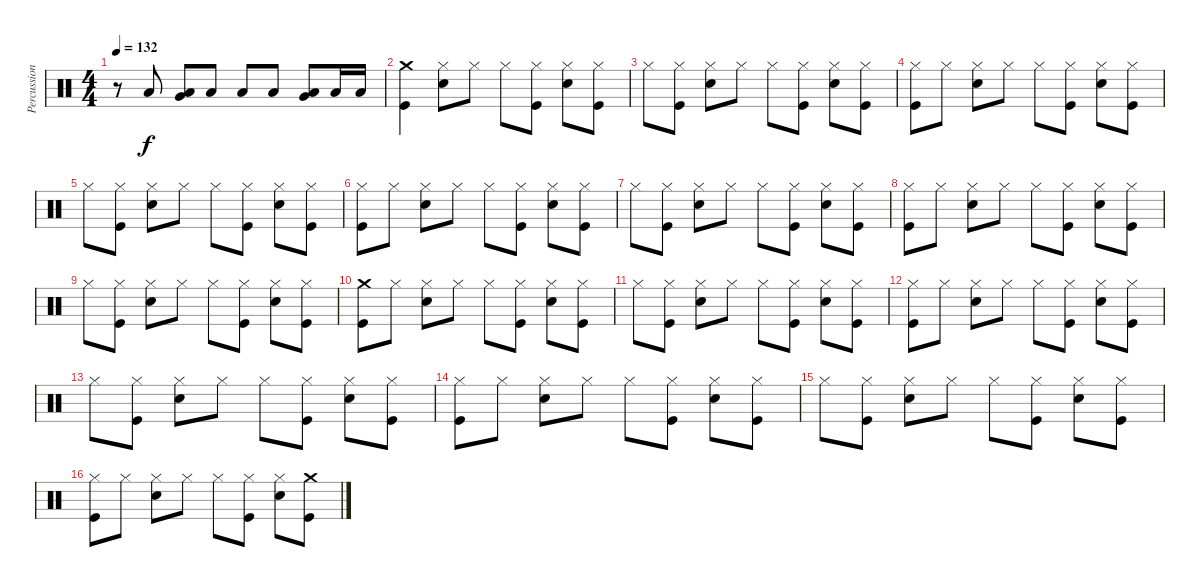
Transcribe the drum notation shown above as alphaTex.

\track ("Percussion" "Percussion") {instrument percussion}
\staff {score}
\articulation defaults
\ts (4 4)
\tempo 132
\clef neutral
\ks c
r.8{dy f} "Low Floor Tom (hit)".8 ("Very Low Tom (hit)" "Low Floor Tom (hit)").8 "Low Floor Tom (hit)".8 "Low Floor Tom (hit)".8 "Low Floor Tom (hit)".8 ("Very Low Tom (hit)" "Low Floor Tom (hit)").8 "Low Floor Tom (hit)".16 "Low Floor Tom (hit)".16 |
("Crash medium (hit)" "Kick (hit)").4 ("Hi-Hat (closed)" "Snare (hit) 2").8 "Hi-Hat (closed)".8 "Hi-Hat (closed)".8 ("Hi-Hat (closed)" "Kick (hit)").8 ("Hi-Hat (closed)" "Snare (hit) 2").8 ("Hi-Hat (closed)" "Kick (hit)").8 |
"Hi-Hat (closed)".8 ("Hi-Hat (closed)" "Kick (hit)").8 ("Hi-Hat (closed)" "Snare (hit) 2").8 "Hi-Hat (closed)".8 "Hi-Hat (closed)".8 ("Hi-Hat (closed)" "Kick (hit)").8 ("Hi-Hat (closed)" "Snare (hit) 2").8 ("Hi-Hat (closed)" "Kick (hit)").8 |
("Hi-Hat (closed)" "Kick (hit)").8 "Hi-Hat (closed)".8 ("Hi-Hat (closed)" "Snare (hit) 2").8 "Hi-Hat (closed)".8 "Hi-Hat (closed)".8 ("Hi-Hat (closed)" "Kick (hit)").8 ("Hi-Hat (closed)" "Snare (hit) 2").8 ("Hi-Hat (closed)" "Kick (hit)").8 |
"Hi-Hat (closed)".8 ("Hi-Hat (closed)" "Kick (hit)").8 ("Hi-Hat (closed)" "Snare (hit) 2").8 "Hi-Hat (closed)".8 "Hi-Hat (closed)".8 ("Hi-Hat (closed)" "Kick (hit)").8 ("Hi-Hat (closed)" "Snare (hit) 2").8 ("Hi-Hat (closed)" "Kick (hit)").8 |
("Hi-Hat (closed)" "Kick (hit)").8 "Hi-Hat (closed)".8 ("Hi-Hat (closed)" "Snare (hit) 2").8 "Hi-Hat (closed)".8 "Hi-Hat (closed)".8 ("Hi-Hat (closed)" "Kick (hit)").8 ("Hi-Hat (closed)" "Snare (hit) 2").8 ("Hi-Hat (closed)" "Kick (hit)").8 |
"Hi-Hat (closed)".8 ("Hi-Hat (closed)" "Kick (hit)").8 ("Hi-Hat (closed)" "Snare (hit) 2").8 "Hi-Hat (closed)".8 "Hi-Hat (closed)".8 ("Hi-Hat (closed)" "Kick (hit)").8 ("Hi-Hat (closed)" "Snare (hit) 2").8 ("Hi-Hat (closed)" "Kick (hit)").8 |
("Hi-Hat (closed)" "Kick (hit)").8 "Hi-Hat (closed)".8 ("Hi-Hat (closed)" "Snare (hit) 2").8 "Hi-Hat (closed)".8 "Hi-Hat (closed)".8 ("Hi-Hat (closed)" "Kick (hit)").8 ("Hi-Hat (closed)" "Snare (hit) 2").8 ("Hi-Hat (closed)" "Kick (hit)").8 |
"Hi-Hat (closed)".8 ("Hi-Hat (closed)" "Kick (hit)").8 ("Hi-Hat (closed)" "Snare (hit) 2").8 "Hi-Hat (closed)".8 "Hi-Hat (closed)".8 ("Hi-Hat (closed)" "Kick (hit)").8 ("Hi-Hat (closed)" "Snare (hit) 2").8 ("Hi-Hat (closed)" "Kick (hit)").8 |
("Crash medium (hit)" "Kick (hit)").8 "Hi-Hat (closed)".8 ("Hi-Hat (closed)" "Snare (hit) 2").8 "Hi-Hat (closed)".8 "Hi-Hat (closed)".8 ("Hi-Hat (closed)" "Kick (hit)").8 ("Hi-Hat (closed)" "Snare (hit) 2").8 ("Hi-Hat (closed)" "Kick (hit)").8 |
"Hi-Hat (closed)".8 ("Hi-Hat (closed)" "Kick (hit)").8 ("Hi-Hat (closed)" "Snare (hit) 2").8 "Hi-Hat (closed)".8 "Hi-Hat (closed)".8 ("Hi-Hat (closed)" "Kick (hit)").8 ("Hi-Hat (closed)" "Snare (hit) 2").8 ("Hi-Hat (closed)" "Kick (hit)").8 |
("Hi-Hat (closed)" "Kick (hit)").8 "Hi-Hat (closed)".8 ("Hi-Hat (closed)" "Snare (hit) 2").8 "Hi-Hat (closed)".8 "Hi-Hat (closed)".8 ("Hi-Hat (closed)" "Kick (hit)").8 ("Hi-Hat (closed)" "Snare (hit) 2").8 ("Hi-Hat (closed)" "Kick (hit)").8 |
"Hi-Hat (closed)".8 ("Hi-Hat (closed)" "Kick (hit)").8 ("Hi-Hat (closed)" "Snare (hit) 2").8 "Hi-Hat (closed)".8 "Hi-Hat (closed)".8 ("Hi-Hat (closed)" "Kick (hit)").8 ("Hi-Hat (closed)" "Snare (hit) 2").8 ("Hi-Hat (closed)" "Kick (hit)").8 |
("Hi-Hat (closed)" "Kick (hit)").8 "Hi-Hat (closed)".8 ("Hi-Hat (closed)" "Snare (hit) 2").8 "Hi-Hat (closed)".8 "Hi-Hat (closed)".8 ("Hi-Hat (closed)" "Kick (hit)").8 ("Hi-Hat (closed)" "Snare (hit) 2").8 ("Hi-Hat (closed)" "Kick (hit)").8 |
"Hi-Hat (closed)".8 ("Hi-Hat (closed)" "Kick (hit)").8 ("Hi-Hat (closed)" "Snare (hit) 2").8 "Hi-Hat (closed)".8 "Hi-Hat (closed)".8 ("Hi-Hat (closed)" "Kick (hit)").8 ("Hi-Hat (closed)" "Snare (hit) 2").8 ("Hi-Hat (closed)" "Kick (hit)").8 |
("Hi-Hat (closed)" "Kick (hit)").8 "Hi-Hat (closed)".8 ("Hi-Hat (closed)" "Snare (hit) 2").8 "Hi-Hat (closed)".8 "Hi-Hat (closed)".8 ("Hi-Hat (closed)" "Kick (hit)").8 ("Hi-Hat (closed)" "Snare (hit) 2").8 ("Crash medium (hit)" "Kick (hit)").8
